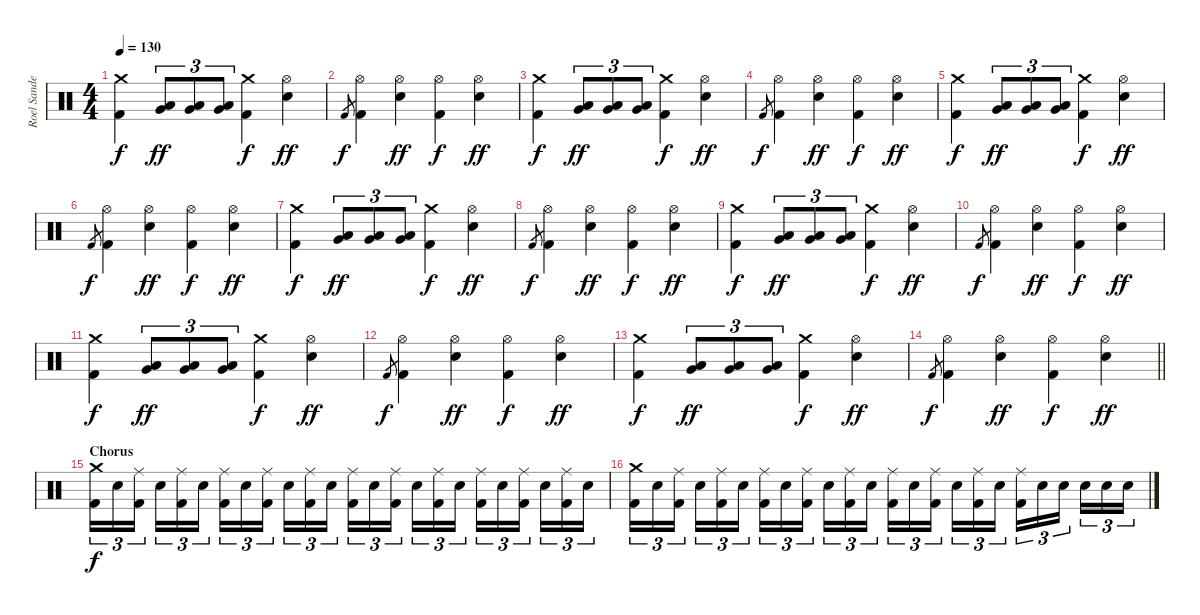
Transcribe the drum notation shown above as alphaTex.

\track ("Roel Sander " "Roel Sande") {instrument percussion}
\staff {score}
\articulation defaults
\ts (4 4)
\tempo 130
\clef neutral
\ks c
("Crash medium (hit)" "Kick (hit) 2").4{dy f} ("Low Tom (hit)" "Very Low Tom (hit)").8{tu (3 2) dy ff} ("Low Tom (hit)" "Very Low Tom (hit)").8{tu (3 2)} ("Low Tom (hit)" "Very Low Tom (hit)").8{tu (3 2)} ("Crash medium (hit)" "Kick (hit) 2").4{dy f} ("Hi-Hat (open)" "Snare (hit) 2").4{dy ff} |
"Kick (hit) 2".8{gr dy f} ("Hi-Hat (open)" "Kick (hit) 2").4 ("Hi-Hat (open)" "Snare (hit) 2").4{dy ff} ("Hi-Hat (open)" "Kick (hit) 2").4{dy f} ("Hi-Hat (open)" "Snare (hit) 2").4{dy ff} |
("Crash medium (hit)" "Kick (hit) 2").4{dy f} ("Low Tom (hit)" "Very Low Tom (hit)").8{tu (3 2) dy ff} ("Low Tom (hit)" "Very Low Tom (hit)").8{tu (3 2)} ("Low Tom (hit)" "Very Low Tom (hit)").8{tu (3 2)} ("Crash medium (hit)" "Kick (hit) 2").4{dy f} ("Hi-Hat (open)" "Snare (hit) 2").4{dy ff} |
"Kick (hit) 2".8{gr dy f} ("Hi-Hat (open)" "Kick (hit) 2").4 ("Hi-Hat (open)" "Snare (hit) 2").4{dy ff} ("Hi-Hat (open)" "Kick (hit) 2").4{dy f} ("Hi-Hat (open)" "Snare (hit) 2").4{dy ff} |
("Crash medium (hit)" "Kick (hit) 2").4{dy f} ("Low Tom (hit)" "Very Low Tom (hit)").8{tu (3 2) dy ff} ("Low Tom (hit)" "Very Low Tom (hit)").8{tu (3 2)} ("Low Tom (hit)" "Very Low Tom (hit)").8{tu (3 2)} ("Crash medium (hit)" "Kick (hit) 2").4{dy f} ("Hi-Hat (open)" "Snare (hit) 2").4{dy ff} |
"Kick (hit) 2".8{gr dy f} ("Hi-Hat (open)" "Kick (hit) 2").4 ("Hi-Hat (open)" "Snare (hit) 2").4{dy ff} ("Hi-Hat (open)" "Kick (hit) 2").4{dy f} ("Hi-Hat (open)" "Snare (hit) 2").4{dy ff} |
("Crash medium (hit)" "Kick (hit) 2").4{dy f} ("Low Tom (hit)" "Very Low Tom (hit)").8{tu (3 2) dy ff} ("Low Tom (hit)" "Very Low Tom (hit)").8{tu (3 2)} ("Low Tom (hit)" "Very Low Tom (hit)").8{tu (3 2)} ("Crash medium (hit)" "Kick (hit) 2").4{dy f} ("Hi-Hat (open)" "Snare (hit) 2").4{dy ff} |
"Kick (hit) 2".8{gr dy f} ("Hi-Hat (open)" "Kick (hit) 2").4 ("Hi-Hat (open)" "Snare (hit) 2").4{dy ff} ("Hi-Hat (open)" "Kick (hit) 2").4{dy f} ("Hi-Hat (open)" "Snare (hit) 2").4{dy ff} |
("Crash medium (hit)" "Kick (hit) 2").4{dy f} ("Low Tom (hit)" "Very Low Tom (hit)").8{tu (3 2) dy ff} ("Low Tom (hit)" "Very Low Tom (hit)").8{tu (3 2)} ("Low Tom (hit)" "Very Low Tom (hit)").8{tu (3 2)} ("Crash medium (hit)" "Kick (hit) 2").4{dy f} ("Hi-Hat (open)" "Snare (hit) 2").4{dy ff} |
"Kick (hit) 2".8{gr dy f} ("Hi-Hat (open)" "Kick (hit) 2").4 ("Hi-Hat (open)" "Snare (hit) 2").4{dy ff} ("Hi-Hat (open)" "Kick (hit) 2").4{dy f} ("Hi-Hat (open)" "Snare (hit) 2").4{dy ff} |
("Crash medium (hit)" "Kick (hit) 2").4{dy f} ("Low Tom (hit)" "Very Low Tom (hit)").8{tu (3 2) dy ff} ("Low Tom (hit)" "Very Low Tom (hit)").8{tu (3 2)} ("Low Tom (hit)" "Very Low Tom (hit)").8{tu (3 2)} ("Crash medium (hit)" "Kick (hit) 2").4{dy f} ("Hi-Hat (open)" "Snare (hit) 2").4{dy ff} |
"Kick (hit) 2".8{gr dy f} ("Hi-Hat (open)" "Kick (hit) 2").4 ("Hi-Hat (open)" "Snare (hit) 2").4{dy ff} ("Hi-Hat (open)" "Kick (hit) 2").4{dy f} ("Hi-Hat (open)" "Snare (hit) 2").4{dy ff} |
("Crash medium (hit)" "Kick (hit) 2").4{dy f} ("Low Tom (hit)" "Very Low Tom (hit)").8{tu (3 2) dy ff} ("Low Tom (hit)" "Very Low Tom (hit)").8{tu (3 2)} ("Low Tom (hit)" "Very Low Tom (hit)").8{tu (3 2)} ("Crash medium (hit)" "Kick (hit) 2").4{dy f} ("Hi-Hat (open)" "Snare (hit) 2").4{dy ff} |
\barLineRight lightlight "Kick (hit) 2".8{gr dy f}
("Hi-Hat (open)" "Kick (hit) 2").4 ("Hi-Hat (open)" "Snare (hit) 2").4{dy ff} ("Hi-Hat (open)" "Kick (hit) 2").4{dy f} ("Hi-Hat (open)" "Snare (hit) 2").4{dy ff} |
\section ("" "Chorus")
("Crash medium (hit)" "Kick (hit) 2").16{tu (3 2) dy f} "Snare (hit) 2".16{tu (3 2)} ("Ride (middle)" "Kick (hit) 2").16{tu (3 2) beam splitsecondary} "Snare (hit) 2".16{tu (3 2)} ("Ride (middle)" "Kick (hit) 2").16{tu (3 2)} "Snare (hit) 2".16{tu (3 2)} ("Ride (middle)" "Kick (hit) 2").16{tu (3 2)} "Snare (hit) 2".16{tu (3 2)} ("Ride (middle)" "Kick (hit) 2").16{tu (3 2) beam splitsecondary} "Snare (hit) 2".16{tu (3 2)} ("Ride (middle)" "Kick (hit) 2").16{tu (3 2)} "Snare (hit) 2".16{tu (3 2)} ("Ride (middle)" "Kick (hit) 2").16{tu (3 2)} "Snare (hit) 2".16{tu (3 2)} ("Ride (middle)" "Kick (hit) 2").16{tu (3 2) beam splitsecondary} "Snare (hit) 2".16{tu (3 2)} ("Ride (middle)" "Kick (hit) 2").16{tu (3 2)} "Snare (hit) 2".16{tu (3 2)} ("Ride (middle)" "Kick (hit) 2").16{tu (3 2)} "Snare (hit) 2".16{tu (3 2)} ("Ride (middle)" "Kick (hit) 2").16{tu (3 2) beam splitsecondary} "Snare (hit) 2".16{tu (3 2)} ("Ride (middle)" "Kick (hit) 2").16{tu (3 2)} "Snare (hit) 2".16{tu (3 2)} |
("Crash medium (hit)" "Kick (hit) 2").16{tu (3 2)} "Snare (hit) 2".16{tu (3 2)} ("Ride (middle)" "Kick (hit) 2").16{tu (3 2) beam splitsecondary} "Snare (hit) 2".16{tu (3 2)} ("Ride (middle)" "Kick (hit) 2").16{tu (3 2)} "Snare (hit) 2".16{tu (3 2)} ("Ride (middle)" "Kick (hit) 2").16{tu (3 2)} "Snare (hit) 2".16{tu (3 2)} ("Ride (middle)" "Kick (hit) 2").16{tu (3 2) beam splitsecondary} "Snare (hit) 2".16{tu (3 2)} ("Ride (middle)" "Kick (hit) 2").16{tu (3 2)} "Snare (hit) 2".16{tu (3 2)} ("Ride (middle)" "Kick (hit) 2").16{tu (3 2)} "Snare (hit) 2".16{tu (3 2)} ("Ride (middle)" "Kick (hit) 2").16{tu (3 2) beam splitsecondary} "Snare (hit) 2".16{tu (3 2)} ("Ride (middle)" "Kick (hit) 2").16{tu (3 2)} "Snare (hit) 2".16{tu (3 2)} ("Ride (middle)" "Kick (hit) 2").16{tu (3 2)} "Snare (hit) 2".16{tu (3 2)} "Snare (hit) 2".16{tu (3 2) beam splitsecondary} "Snare (hit) 2".16{tu (3 2)} "Snare (hit) 2".16{tu (3 2)} "Snare (hit) 2".16{tu (3 2)}
